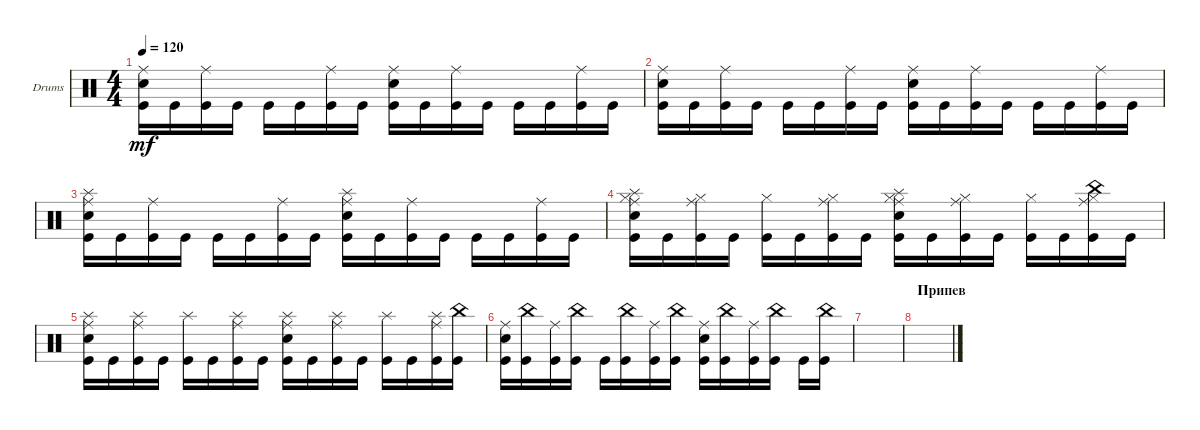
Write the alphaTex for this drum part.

\defaultSystemsLayout 4
\bracketExtendMode groupsimilarinstruments
\firstSystemTrackNameOrientation horizontal
\otherSystemsTrackNameOrientation horizontal
\track ("Drumkit" "Drums") {instrument percussion}
\staff {score}
\articulation defaults
\ts (4 4)
\tempo 120
\clef neutral
\scale
0.333333
\ks c
("Ride (middle)" "Snare (hit) 2" "Kick (hit)").16{dy mf} "Kick (hit)".16 ("Ride (middle)" "Kick (hit)").16 "Kick (hit)".16 "Kick (hit)".16 "Kick (hit)".16 ("Ride (middle)" "Kick (hit)").16 "Kick (hit)".16 ("Ride (middle)" "Snare (hit) 2" "Kick (hit)").16 "Kick (hit)".16 ("Ride (middle)" "Kick (hit)").16 "Kick (hit)".16 "Kick (hit)".16 "Kick (hit)".16 ("Ride (middle)" "Kick (hit)").16 "Kick (hit)".16 |
\scale
0.333333 ("Ride (middle)" "Snare (hit) 2" "Kick (hit)").16 "Kick (hit)".16 ("Ride (middle)" "Kick (hit)").16 "Kick (hit)".16 "Kick (hit)".16 "Kick (hit)".16 ("Ride (middle)" "Kick (hit)").16 "Kick (hit)".16 ("Ride (middle)" "Snare (hit) 2" "Kick (hit)").16 "Kick (hit)".16 ("Ride (middle)" "Kick (hit)").16 "Kick (hit)".16 "Kick (hit)".16 "Kick (hit)".16 ("Ride (middle)" "Kick (hit)").16 "Kick (hit)".16 |
\scale
0.333333 ("Ride (middle)" "Snare (hit) 2" "Kick (hit)" "Splash (hit)").16 "Kick (hit)".16 ("Ride (middle)" "Kick (hit)").16 "Kick (hit)".16 "Kick (hit)".16 "Kick (hit)".16 ("Ride (middle)" "Kick (hit)").16 "Kick (hit)".16 ("Ride (middle)" "Snare (hit) 2" "Kick (hit)" "Splash (hit)").16 "Kick (hit)".16 ("Ride (middle)" "Kick (hit)").16 "Kick (hit)".16 "Kick (hit)".16 "Kick (hit)".16 ("Ride (middle)" "Kick (hit)").16 "Kick (hit)".16 |
\scale
0.333333 ("Ride (middle)" "Snare (hit) 2" "Kick (hit)" "Hi-Hat (closed)" "Splash (hit)").16 "Kick (hit)".16 ("Ride (middle)" "Kick (hit)" "Hi-Hat (closed)").16 "Kick (hit)".16 ("Kick (hit)" "Hi-Hat (closed)").16 "Kick (hit)".16 ("Ride (middle)" "Kick (hit)" "Hi-Hat (closed)").16 "Kick (hit)".16 ("Ride (middle)" "Snare (hit) 2" "Kick (hit)" "Hi-Hat (closed)" "Splash (hit)").16 "Kick (hit)".16 ("Ride (middle)" "Kick (hit)" "Hi-Hat (closed)").16 "Kick (hit)".16 ("Kick (hit)" "Hi-Hat (closed)").16 "Kick (hit)".16 ("Ride (middle)" "Kick (hit)" "Hi-Hat (closed)" "China (hit)").16 "Kick (hit)".16 |
\scale
0.333333 ("Ride (middle)" "Snare (hit) 2" "Kick (hit)" "Splash (hit)").16 "Kick (hit)".16 ("Ride (middle)" "Kick (hit)" "Splash (hit)").16 "Kick (hit)".16 ("Kick (hit)" "Splash (hit)").16 "Kick (hit)".16 ("Ride (middle)" "Kick (hit)" "Splash (hit)").16 "Kick (hit)".16 ("Ride (middle)" "Snare (hit) 2" "Kick (hit)" "Splash (hit)").16 "Kick (hit)".16 ("Ride (middle)" "Kick (hit)" "Splash (hit)").16 "Kick (hit)".16 ("Kick (hit)" "Splash (hit)").16 "Kick (hit)".16 ("Ride (middle)" "Kick (hit)" "Splash (hit)").16 ("Kick (hit)" "China (hit)").16 |
\scale
0.333333 ("Ride (middle)" "Snare (hit) 2" "Kick (hit)").16 ("Kick (hit)" "China (hit)").16 ("Ride (middle)" "Kick (hit)").16 ("Kick (hit)" "China (hit)").16 "Kick (hit)".16 ("Kick (hit)" "China (hit)").16 ("Ride (middle)" "Kick (hit)").16 ("Kick (hit)" "China (hit)").16 ("Ride (middle)" "Snare (hit) 2" "Kick (hit)").16 ("Kick (hit)" "China (hit)").16 ("Ride (middle)" "Kick (hit)").16 ("Kick (hit)" "China (hit)").16 "Kick (hit)".16 ("Kick (hit)" "China (hit)").16 |
\scale
0.333333 |
\section ("" "Припев")
\scale
0.333333 |
\scale
0.333333 |
\scale
0.333333 |
\scale
0.333333 |
\scale
0.333333 |
\scale
0.333333 |
\scale
0.333333 |
\scale
0.333333 |
\scale
0.333333
